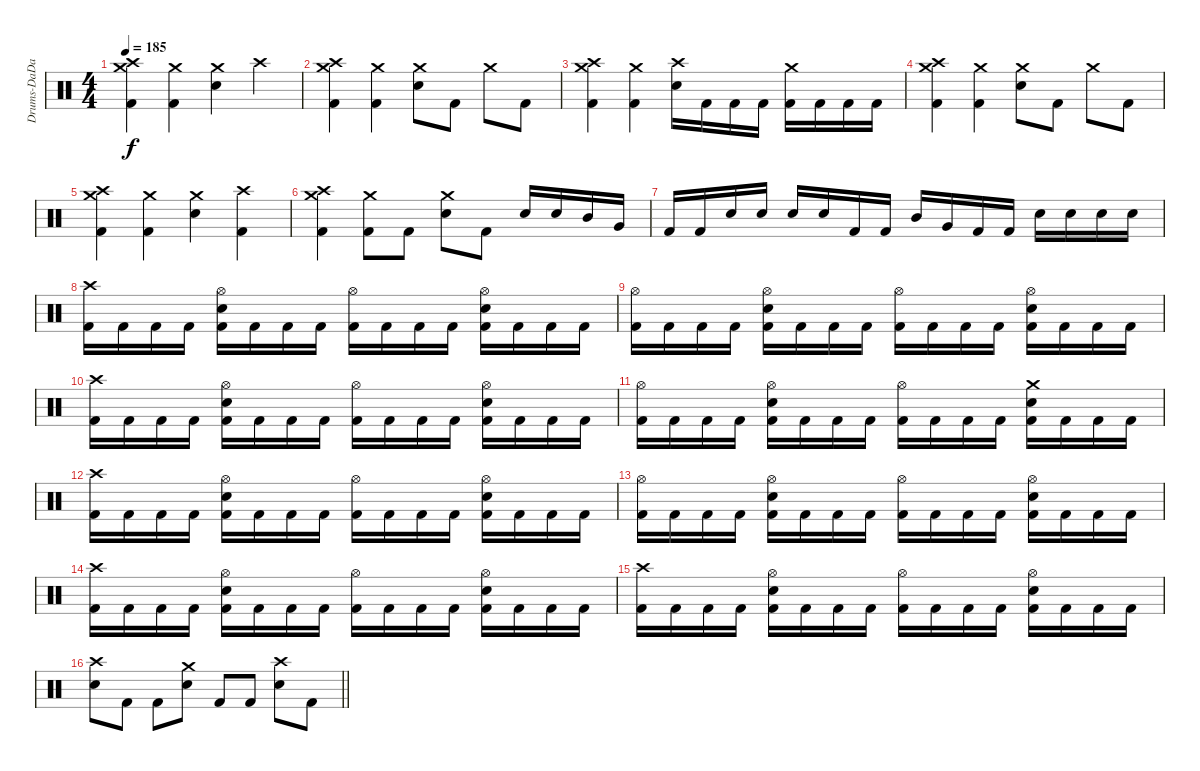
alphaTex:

\track ("Drums-DaDa" "Drums-DaDa") {instrument percussion}
\staff {score}
\articulation defaults
\ts (4 4)
\tempo 185
\clef neutral
\ks c
("Crash medium (hit)" "Crash high (hit)" "Kick (hit) 2").4{dy f} ("Crash medium (hit)" "Kick (hit) 2").4 ("Crash medium (hit)" "Electric Snare (hit)").4 "Crash high (hit)".4 |
("Crash medium (hit)" "Crash high (hit)" "Kick (hit) 2").4 ("Crash medium (hit)" "Kick (hit) 2").4 ("Crash medium (hit)" "Electric Snare (hit)").8 "Kick (hit) 2".8 "Crash medium (hit)".8 "Kick (hit) 2".8 |
("Crash medium (hit)" "Crash high (hit)" "Kick (hit) 2").4 ("Crash medium (hit)" "Kick (hit) 2").4 ("Crash high (hit)" "Electric Snare (hit)").16 "Kick (hit) 2".16 "Kick (hit) 2".16 "Kick (hit) 2".16 ("Crash medium (hit)" "Kick (hit) 2").16 "Kick (hit) 2".16 "Kick (hit) 2".16 "Kick (hit) 2".16 |
("Crash medium (hit)" "Crash high (hit)" "Kick (hit) 2").4 ("Crash medium (hit)" "Kick (hit) 2").4 ("Crash medium (hit)" "Electric Snare (hit)").8 "Kick (hit) 2".8 "Crash medium (hit)".8 "Kick (hit) 2".8 |
("Crash medium (hit)" "Crash high (hit)" "Kick (hit) 2").4 ("Crash medium (hit)" "Kick (hit) 2").4 ("Crash medium (hit)" "Electric Snare (hit)").4 ("Crash high (hit)" "Kick (hit) 2").4 |
("Crash medium (hit)" "Crash high (hit)" "Kick (hit) 2").4 ("Crash medium (hit)" "Kick (hit) 2").8 "Kick (hit) 2".8 ("Crash medium (hit)" "Electric Snare (hit)").8 "Kick (hit) 2".8 "Electric Snare (hit)".16 "Electric Snare (hit)".16 "Mid Tom (hit)".16 "Very Low Tom (hit)".16 |
"Kick (hit) 2".16 "Kick (hit) 2".16 "Electric Snare (hit)".16 "Electric Snare (hit)".16 "Electric Snare (hit)".16 "Electric Snare (hit)".16 "Kick (hit) 2".16 "Kick (hit) 2".16 "Mid Tom (hit)".16 "Very Low Tom (hit)".16 "Kick (hit) 2".16 "Kick (hit) 2".16 "Electric Snare (hit)".16 "Electric Snare (hit)".16 "Electric Snare (hit)".16 "Electric Snare (hit)".16 |
("Crash high (hit)" "Kick (hit) 2").16 "Kick (hit) 2".16 "Kick (hit) 2".16 "Kick (hit) 2".16 ("Hi-Hat (open)" "Electric Snare (hit)" "Kick (hit) 2").16 "Kick (hit) 2".16 "Kick (hit) 2".16 "Kick (hit) 2".16 ("Hi-Hat (open)" "Kick (hit) 2").16 "Kick (hit) 2".16 "Kick (hit) 2".16 "Kick (hit) 2".16 ("Hi-Hat (open)" "Electric Snare (hit)" "Kick (hit) 2").16 "Kick (hit) 2".16 "Kick (hit) 2".16 "Kick (hit) 2".16 |
("Hi-Hat (open)" "Kick (hit) 2").16 "Kick (hit) 2".16 "Kick (hit) 2".16 "Kick (hit) 2".16 ("Hi-Hat (open)" "Electric Snare (hit)" "Kick (hit) 2").16 "Kick (hit) 2".16 "Kick (hit) 2".16 "Kick (hit) 2".16 ("Hi-Hat (open)" "Kick (hit) 2").16 "Kick (hit) 2".16 "Kick (hit) 2".16 "Kick (hit) 2".16 ("Hi-Hat (open)" "Electric Snare (hit)" "Kick (hit) 2").16 "Kick (hit) 2".16 "Kick (hit) 2".16 "Kick (hit) 2".16 |
("Crash high (hit)" "Kick (hit) 2").16 "Kick (hit) 2".16 "Kick (hit) 2".16 "Kick (hit) 2".16 ("Hi-Hat (open)" "Electric Snare (hit)" "Kick (hit) 2").16 "Kick (hit) 2".16 "Kick (hit) 2".16 "Kick (hit) 2".16 ("Hi-Hat (open)" "Kick (hit) 2").16 "Kick (hit) 2".16 "Kick (hit) 2".16 "Kick (hit) 2".16 ("Hi-Hat (open)" "Electric Snare (hit)" "Kick (hit) 2").16 "Kick (hit) 2".16 "Kick (hit) 2".16 "Kick (hit) 2".16 |
("Hi-Hat (open)" "Kick (hit) 2").16 "Kick (hit) 2".16 "Kick (hit) 2".16 "Kick (hit) 2".16 ("Hi-Hat (open)" "Electric Snare (hit)" "Kick (hit) 2").16 "Kick (hit) 2".16 "Kick (hit) 2".16 "Kick (hit) 2".16 ("Hi-Hat (open)" "Kick (hit) 2").16 "Kick (hit) 2".16 "Kick (hit) 2".16 "Kick (hit) 2".16 ("Crash medium (hit)" "Electric Snare (hit)" "Kick (hit) 2").16 "Kick (hit) 2".16 "Kick (hit) 2".16 "Kick (hit) 2".16 |
("Crash high (hit)" "Kick (hit) 2").16 "Kick (hit) 2".16 "Kick (hit) 2".16 "Kick (hit) 2".16 ("Hi-Hat (open)" "Electric Snare (hit)" "Kick (hit) 2").16 "Kick (hit) 2".16 "Kick (hit) 2".16 "Kick (hit) 2".16 ("Hi-Hat (open)" "Kick (hit) 2").16 "Kick (hit) 2".16 "Kick (hit) 2".16 "Kick (hit) 2".16 ("Hi-Hat (open)" "Electric Snare (hit)" "Kick (hit) 2").16 "Kick (hit) 2".16 "Kick (hit) 2".16 "Kick (hit) 2".16 |
("Hi-Hat (open)" "Kick (hit) 2").16 "Kick (hit) 2".16 "Kick (hit) 2".16 "Kick (hit) 2".16 ("Hi-Hat (open)" "Electric Snare (hit)" "Kick (hit) 2").16 "Kick (hit) 2".16 "Kick (hit) 2".16 "Kick (hit) 2".16 ("Hi-Hat (open)" "Kick (hit) 2").16 "Kick (hit) 2".16 "Kick (hit) 2".16 "Kick (hit) 2".16 ("Hi-Hat (open)" "Electric Snare (hit)" "Kick (hit) 2").16 "Kick (hit) 2".16 "Kick (hit) 2".16 "Kick (hit) 2".16 |
("Crash high (hit)" "Kick (hit) 2").16 "Kick (hit) 2".16 "Kick (hit) 2".16 "Kick (hit) 2".16 ("Hi-Hat (open)" "Electric Snare (hit)" "Kick (hit) 2").16 "Kick (hit) 2".16 "Kick (hit) 2".16 "Kick (hit) 2".16 ("Hi-Hat (open)" "Kick (hit) 2").16 "Kick (hit) 2".16 "Kick (hit) 2".16 "Kick (hit) 2".16 ("Hi-Hat (open)" "Electric Snare (hit)" "Kick (hit) 2").16 "Kick (hit) 2".16 "Kick (hit) 2".16 "Kick (hit) 2".16 |
("Crash high (hit)" "Kick (hit) 2").16 "Kick (hit) 2".16 "Kick (hit) 2".16 "Kick (hit) 2".16 ("Hi-Hat (open)" "Electric Snare (hit)" "Kick (hit) 2").16 "Kick (hit) 2".16 "Kick (hit) 2".16 "Kick (hit) 2".16 ("Hi-Hat (open)" "Kick (hit) 2").16 "Kick (hit) 2".16 "Kick (hit) 2".16 "Kick (hit) 2".16 ("Hi-Hat (open)" "Electric Snare (hit)" "Kick (hit) 2").16 "Kick (hit) 2".16 "Kick (hit) 2".16 "Kick (hit) 2".16 |
\barLineRight lightlight
("Crash high (hit)" "Electric Snare (hit)").8 "Kick (hit) 2".8 "Kick (hit) 2".8 ("Crash medium (hit)" "Electric Snare (hit)").8 "Kick (hit) 2".8 "Kick (hit) 2".8 ("Crash high (hit)" "Electric Snare (hit)").8 "Kick (hit) 2".8
